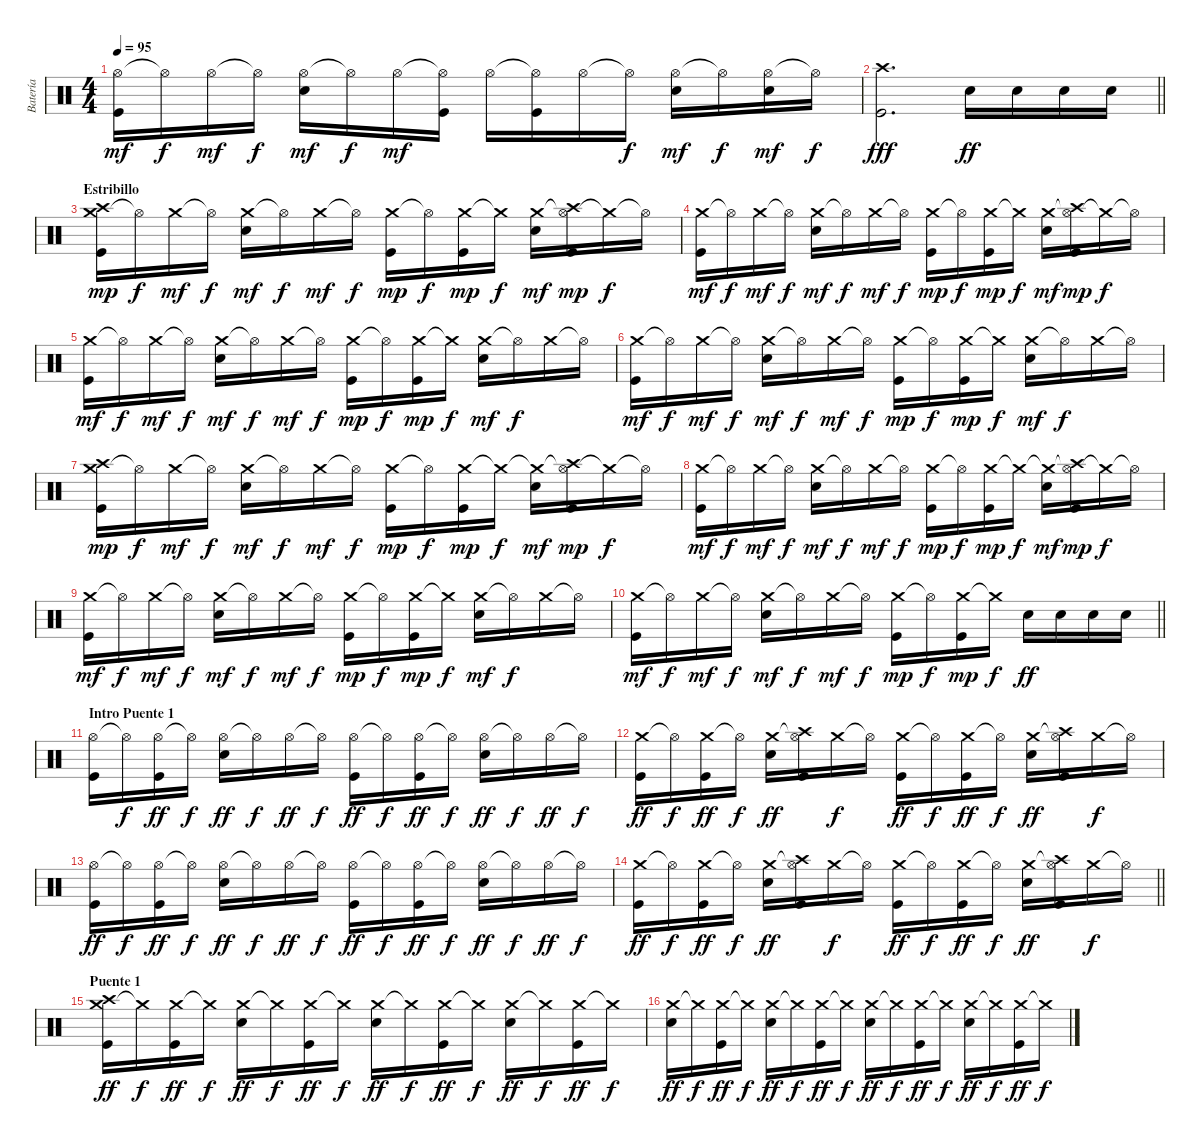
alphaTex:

\track ("Batería" "Batería") {instrument percussion}
\staff {score}
\articulation defaults
\ts (4 4)
\tempo 95
\clef neutral
\ks c
("Hi-Hat (open)" "Kick (hit)").16{dy mf} "Hi-Hat (open)"{t}.16{dy f} "Hi-Hat (open)".16{dy mf} "Hi-Hat (open)"{t}.16{dy f} ("Hi-Hat (open)" "Electric Snare (hit)").16{dy mf} "Hi-Hat (open)"{t}.16{dy f} "Hi-Hat (open)".16{dy mf} ("Hi-Hat (open)"{t} "Kick (hit)").16 "Hi-Hat (open)".16 ("Hi-Hat (open)"{t} "Kick (hit)").16 "Hi-Hat (open)".16 "Hi-Hat (open)"{t}.16{dy f} ("Hi-Hat (open)" "Electric Snare (hit)").16{dy mf} "Hi-Hat (open)"{t}.16{dy f} ("Hi-Hat (open)" "Electric Snare (hit)").16{dy mf} "Hi-Hat (open)"{t}.16{dy f} |
\barLineRight lightlight
("Kick (hit)" "Crash high (hit)").2{d dy fff} "Electric Snare (hit)".16{dy ff} "Electric Snare (hit)".16 "Electric Snare (hit)".16 "Electric Snare (hit)".16 |
\section ("" "Estribillo")
("Crash medium (hit)" "Kick (hit)" "Crash high (hit)").16{dy mp} "Hi-Hat (open)"{t}.16{dy f} "Crash medium (hit)".16{dy mf} "Hi-Hat (open)"{t}.16{dy f} ("Crash medium (hit)" "Electric Snare (hit)").16{dy mf} "Hi-Hat (open)"{t}.16{dy f} "Crash medium (hit)".16{dy mf} "Hi-Hat (open)"{t}.16{dy f} ("Crash medium (hit)" "Kick (hit)").16{dy mp} "Hi-Hat (open)"{t}.16{dy f} ("Crash medium (hit)" "Kick (hit)").16{dy mp} "Crash medium (hit)"{t}.16{dy f} ("Crash medium (hit)" "Electric Snare (hit)").16{dy mf} ("Hi-Hat (open)"{t} "Kick (hit)" "Crash high (hit)").16{dy mp} "Crash medium (hit)"{t}.16{dy f} "Hi-Hat (open)"{t}.16 |
("Crash medium (hit)" "Kick (hit)").16{dy mf} "Hi-Hat (open)"{t}.16{dy f} "Crash medium (hit)".16{dy mf} "Hi-Hat (open)"{t}.16{dy f} ("Crash medium (hit)" "Electric Snare (hit)").16{dy mf} "Hi-Hat (open)"{t}.16{dy f} "Crash medium (hit)".16{dy mf} "Hi-Hat (open)"{t}.16{dy f} ("Crash medium (hit)" "Kick (hit)").16{dy mp} "Hi-Hat (open)"{t}.16{dy f} ("Crash medium (hit)" "Kick (hit)").16{dy mp} "Crash medium (hit)"{t}.16{dy f} ("Crash medium (hit)" "Electric Snare (hit)").16{dy mf} ("Hi-Hat (open)"{t} "Kick (hit)" "Crash high (hit)").16{dy mp} "Crash medium (hit)"{t}.16{dy f} "Hi-Hat (open)"{t}.16 |
("Crash medium (hit)" "Kick (hit)").16{dy mf} "Hi-Hat (open)"{t}.16{dy f} "Crash medium (hit)".16{dy mf} "Hi-Hat (open)"{t}.16{dy f} ("Crash medium (hit)" "Electric Snare (hit)").16{dy mf} "Hi-Hat (open)"{t}.16{dy f} "Crash medium (hit)".16{dy mf} "Hi-Hat (open)"{t}.16{dy f} ("Crash medium (hit)" "Kick (hit)").16{dy mp} "Hi-Hat (open)"{t}.16{dy f} ("Crash medium (hit)" "Kick (hit)").16{dy mp} "Crash medium (hit)"{t}.16{dy f} ("Crash medium (hit)" "Electric Snare (hit)").16{dy mf} "Hi-Hat (open)"{t}.16{dy f} "Crash medium (hit)".16 "Hi-Hat (open)"{t}.16 |
("Crash medium (hit)" "Kick (hit)").16{dy mf} "Hi-Hat (open)"{t}.16{dy f} "Crash medium (hit)".16{dy mf} "Hi-Hat (open)"{t}.16{dy f} ("Crash medium (hit)" "Electric Snare (hit)").16{dy mf} "Hi-Hat (open)"{t}.16{dy f} "Crash medium (hit)".16{dy mf} "Hi-Hat (open)"{t}.16{dy f} ("Crash medium (hit)" "Kick (hit)").16{dy mp} "Hi-Hat (open)"{t}.16{dy f} ("Crash medium (hit)" "Kick (hit)").16{dy mp} "Crash medium (hit)"{t}.16{dy f} ("Crash medium (hit)" "Electric Snare (hit)").16{dy mf} "Hi-Hat (open)"{t}.16{dy f} "Crash medium (hit)".16 "Hi-Hat (open)"{t}.16 |
("Crash medium (hit)" "Kick (hit)" "Crash high (hit)").16{dy mp} "Hi-Hat (open)"{t}.16{dy f} "Crash medium (hit)".16{dy mf} "Hi-Hat (open)"{t}.16{dy f} ("Crash medium (hit)" "Electric Snare (hit)").16{dy mf} "Hi-Hat (open)"{t}.16{dy f} "Crash medium (hit)".16{dy mf} "Hi-Hat (open)"{t}.16{dy f} ("Crash medium (hit)" "Kick (hit)").16{dy mp} "Hi-Hat (open)"{t}.16{dy f} ("Crash medium (hit)" "Kick (hit)").16{dy mp} "Crash medium (hit)"{t}.16{dy f} ("Crash medium (hit)"{t} "Electric Snare (hit)").16{dy mf} ("Hi-Hat (open)"{t} "Kick (hit)" "Crash high (hit)").16{dy mp} "Crash medium (hit)"{t}.16{dy f} "Hi-Hat (open)"{t}.16 |
("Crash medium (hit)" "Kick (hit)").16{dy mf} "Hi-Hat (open)"{t}.16{dy f} "Crash medium (hit)".16{dy mf} "Hi-Hat (open)"{t}.16{dy f} ("Crash medium (hit)" "Electric Snare (hit)").16{dy mf} "Hi-Hat (open)"{t}.16{dy f} "Crash medium (hit)".16{dy mf} "Hi-Hat (open)"{t}.16{dy f} ("Crash medium (hit)" "Kick (hit)").16{dy mp} "Hi-Hat (open)"{t}.16{dy f} ("Crash medium (hit)" "Kick (hit)").16{dy mp} "Crash medium (hit)"{t}.16{dy f} ("Crash medium (hit)"{t} "Electric Snare (hit)").16{dy mf} ("Hi-Hat (open)"{t} "Kick (hit)" "Crash high (hit)").16{dy mp} "Crash medium (hit)"{t}.16{dy f} "Hi-Hat (open)"{t}.16 |
("Crash medium (hit)" "Kick (hit)").16{dy mf} "Hi-Hat (open)"{t}.16{dy f} "Crash medium (hit)".16{dy mf} "Hi-Hat (open)"{t}.16{dy f} ("Crash medium (hit)" "Electric Snare (hit)").16{dy mf} "Hi-Hat (open)"{t}.16{dy f} "Crash medium (hit)".16{dy mf} "Hi-Hat (open)"{t}.16{dy f} ("Crash medium (hit)" "Kick (hit)").16{dy mp} "Hi-Hat (open)"{t}.16{dy f} ("Crash medium (hit)" "Kick (hit)").16{dy mp} "Crash medium (hit)"{t}.16{dy f} ("Crash medium (hit)" "Electric Snare (hit)").16{dy mf} "Hi-Hat (open)"{t}.16{dy f} "Crash medium (hit)".16 "Hi-Hat (open)"{t}.16 |
\barLineRight lightlight
("Crash medium (hit)" "Kick (hit)").16{dy mf} "Hi-Hat (open)"{t}.16{dy f} "Crash medium (hit)".16{dy mf} "Hi-Hat (open)"{t}.16{dy f} ("Crash medium (hit)" "Electric Snare (hit)").16{dy mf} "Hi-Hat (open)"{t}.16{dy f} "Crash medium (hit)".16{dy mf} "Hi-Hat (open)"{t}.16{dy f} ("Crash medium (hit)" "Kick (hit)").16{dy mp} "Hi-Hat (open)"{t}.16{dy f} ("Crash medium (hit)" "Kick (hit)").16{dy mp} "Crash medium (hit)"{t}.16{dy f} "Electric Snare (hit)".16{dy ff} "Electric Snare (hit)".16 "Electric Snare (hit)".16 "Electric Snare (hit)".16 |
\section ("" "Intro Puente 1")
("Hi-Hat (open)" "Kick (hit)").16 "Hi-Hat (open)"{t}.16{dy f} ("Hi-Hat (open)" "Kick (hit)").16{dy ff} "Hi-Hat (open)"{t}.16{dy f} ("Hi-Hat (open)" "Electric Snare (hit)").16{dy ff} "Hi-Hat (open)"{t}.16{dy f} "Hi-Hat (open)".16{dy ff} "Hi-Hat (open)"{t}.16{dy f} ("Hi-Hat (open)" "Kick (hit)").16{dy ff} "Hi-Hat (open)"{t}.16{dy f} ("Hi-Hat (open)" "Kick (hit)").16{dy ff} "Hi-Hat (open)"{t}.16{dy f} ("Hi-Hat (open)" "Electric Snare (hit)").16{dy ff} "Hi-Hat (open)"{t}.16{dy f} "Hi-Hat (open)".16{dy ff} "Hi-Hat (open)"{t}.16{dy f} |
("Crash medium (hit)" "Kick (hit)").16{dy ff} "Hi-Hat (open)"{t}.16{dy f} ("Crash medium (hit)" "Kick (hit)").16{dy ff} "Hi-Hat (open)"{t}.16{dy f} ("Crash medium (hit)" "Electric Snare (hit)").16{dy ff} ("Hi-Hat (open)"{t} "Kick (hit)" "Crash high (hit)").16 "Crash medium (hit)".16{dy f} "Hi-Hat (open)"{t}.16 ("Crash medium (hit)" "Kick (hit)").16{dy ff} "Hi-Hat (open)"{t}.16{dy f} ("Crash medium (hit)" "Kick (hit)").16{dy ff} "Hi-Hat (open)"{t}.16{dy f} ("Crash medium (hit)" "Electric Snare (hit)").16{dy ff} ("Hi-Hat (open)"{t} "Kick (hit)" "Crash high (hit)").16 "Crash medium (hit)".16{dy f} "Hi-Hat (open)"{t}.16 |
("Hi-Hat (open)" "Kick (hit)").16{dy ff} "Hi-Hat (open)"{t}.16{dy f} ("Hi-Hat (open)" "Kick (hit)").16{dy ff} "Hi-Hat (open)"{t}.16{dy f} ("Hi-Hat (open)" "Electric Snare (hit)").16{dy ff} "Hi-Hat (open)"{t}.16{dy f} "Hi-Hat (open)".16{dy ff} "Hi-Hat (open)"{t}.16{dy f} ("Hi-Hat (open)" "Kick (hit)").16{dy ff} "Hi-Hat (open)"{t}.16{dy f} ("Hi-Hat (open)" "Kick (hit)").16{dy ff} "Hi-Hat (open)"{t}.16{dy f} ("Hi-Hat (open)" "Electric Snare (hit)").16{dy ff} "Hi-Hat (open)"{t}.16{dy f} "Hi-Hat (open)".16{dy ff} "Hi-Hat (open)"{t}.16{dy f} |
\barLineRight lightlight
("Crash medium (hit)" "Kick (hit)").16{dy ff} "Hi-Hat (open)"{t}.16{dy f} ("Crash medium (hit)" "Kick (hit)").16{dy ff} "Hi-Hat (open)"{t}.16{dy f} ("Crash medium (hit)" "Electric Snare (hit)").16{dy ff} ("Hi-Hat (open)"{t} "Kick (hit)" "Crash high (hit)").16 "Crash medium (hit)".16{dy f} "Hi-Hat (open)"{t}.16 ("Crash medium (hit)" "Kick (hit)").16{dy ff} "Hi-Hat (open)"{t}.16{dy f} ("Crash medium (hit)" "Kick (hit)").16{dy ff} "Hi-Hat (open)"{t}.16{dy f} ("Crash medium (hit)" "Electric Snare (hit)").16{dy ff} ("Hi-Hat (open)"{t} "Kick (hit)" "Crash high (hit)").16 "Crash medium (hit)".16{dy f} "Hi-Hat (open)"{t}.16 |
\section ("" "Puente 1")
("Crash medium (hit)" "Kick (hit)" "Crash high (hit)").16{dy ff} "Crash medium (hit)"{t}.16{dy f} ("Crash medium (hit)" "Kick (hit)").16{dy ff} "Crash medium (hit)"{t}.16{dy f} ("Crash medium (hit)" "Electric Snare (hit)").16{dy ff} "Crash medium (hit)"{t}.16{dy f} ("Crash medium (hit)" "Kick (hit)").16{dy ff} "Crash medium (hit)"{t}.16{dy f} ("Crash medium (hit)" "Electric Snare (hit)").16{dy ff} "Crash medium (hit)"{t}.16{dy f} ("Crash medium (hit)" "Kick (hit)").16{dy ff} "Crash medium (hit)"{t}.16{dy f} ("Crash medium (hit)" "Electric Snare (hit)").16{dy ff} "Crash medium (hit)"{t}.16{dy f} ("Crash medium (hit)" "Kick (hit)").16{dy ff} "Crash medium (hit)"{t}.16{dy f} |
("Crash medium (hit)" "Electric Snare (hit)").16{dy ff} "Crash medium (hit)"{t}.16{dy f} ("Crash medium (hit)" "Kick (hit)").16{dy ff} "Crash medium (hit)"{t}.16{dy f} ("Crash medium (hit)" "Electric Snare (hit)").16{dy ff} "Crash medium (hit)"{t}.16{dy f} ("Crash medium (hit)" "Kick (hit)").16{dy ff} "Crash medium (hit)"{t}.16{dy f} ("Crash medium (hit)" "Electric Snare (hit)").16{dy ff} "Crash medium (hit)"{t}.16{dy f} ("Crash medium (hit)" "Kick (hit)").16{dy ff} "Crash medium (hit)"{t}.16{dy f} ("Crash medium (hit)" "Electric Snare (hit)").16{dy ff} "Crash medium (hit)"{t}.16{dy f} ("Crash medium (hit)" "Kick (hit)").16{dy ff} "Crash medium (hit)"{t}.16{dy f}
